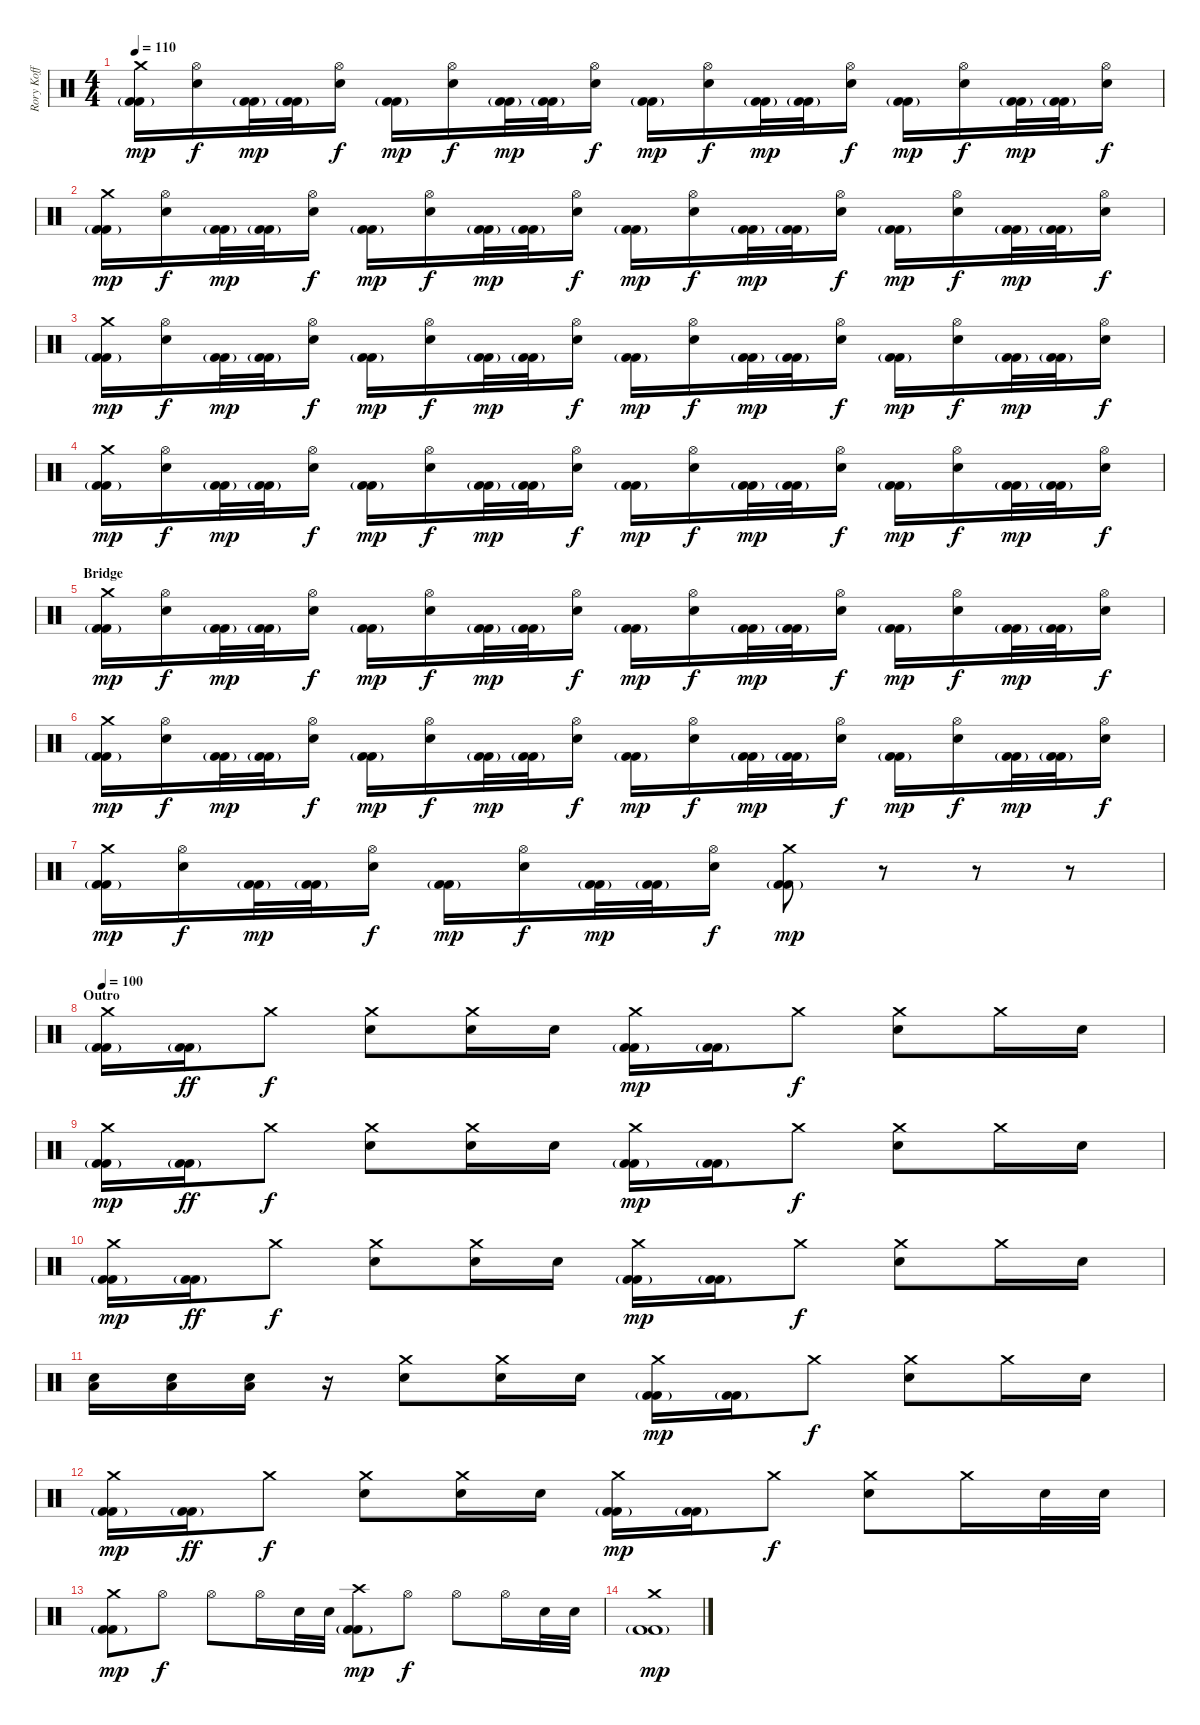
\track ("Rory Koff" "Rory Koff") {instrument percussion}
\staff {score}
\articulation defaults
\ts (4 4)
\tempo 110
\clef neutral
\ks c
("Crash medium (hit)" "Kick (hit) 2"{g} "Kick (hit) 2").16{dy mp} ("Hi-Hat (open)" "Snare (hit) 2").16{dy f} ("Kick (hit) 2"{g} "Kick (hit) 2").32{dy mp} ("Kick (hit) 2"{g} "Kick (hit) 2").32 ("Hi-Hat (open)" "Snare (hit) 2").16{dy f} ("Kick (hit) 2"{g} "Kick (hit) 2").16{dy mp} ("Hi-Hat (open)" "Snare (hit) 2").16{dy f} ("Kick (hit) 2"{g} "Kick (hit) 2").32{dy mp} ("Kick (hit) 2"{g} "Kick (hit) 2").32 ("Hi-Hat (open)" "Snare (hit) 2").16{dy f} ("Kick (hit) 2"{g} "Kick (hit) 2").16{dy mp} ("Hi-Hat (open)" "Snare (hit) 2").16{dy f} ("Kick (hit) 2"{g} "Kick (hit) 2").32{dy mp} ("Kick (hit) 2"{g} "Kick (hit) 2").32 ("Hi-Hat (open)" "Snare (hit) 2").16{dy f} ("Kick (hit) 2"{g} "Kick (hit) 2").16{dy mp} ("Hi-Hat (open)" "Snare (hit) 2").16{dy f} ("Kick (hit) 2"{g} "Kick (hit) 2").32{dy mp} ("Kick (hit) 2"{g} "Kick (hit) 2").32 ("Hi-Hat (open)" "Snare (hit) 2").16{dy f} |
("Crash medium (hit)" "Kick (hit) 2"{g} "Kick (hit) 2").16{dy mp} ("Hi-Hat (open)" "Snare (hit) 2").16{dy f} ("Kick (hit) 2"{g} "Kick (hit) 2").32{dy mp} ("Kick (hit) 2"{g} "Kick (hit) 2").32 ("Hi-Hat (open)" "Snare (hit) 2").16{dy f} ("Kick (hit) 2"{g} "Kick (hit) 2").16{dy mp} ("Hi-Hat (open)" "Snare (hit) 2").16{dy f} ("Kick (hit) 2"{g} "Kick (hit) 2").32{dy mp} ("Kick (hit) 2"{g} "Kick (hit) 2").32 ("Hi-Hat (open)" "Snare (hit) 2").16{dy f} ("Kick (hit) 2"{g} "Kick (hit) 2").16{dy mp} ("Hi-Hat (open)" "Snare (hit) 2").16{dy f} ("Kick (hit) 2"{g} "Kick (hit) 2").32{dy mp} ("Kick (hit) 2"{g} "Kick (hit) 2").32 ("Hi-Hat (open)" "Snare (hit) 2").16{dy f} ("Kick (hit) 2"{g} "Kick (hit) 2").16{dy mp} ("Hi-Hat (open)" "Snare (hit) 2").16{dy f} ("Kick (hit) 2"{g} "Kick (hit) 2").32{dy mp} ("Kick (hit) 2"{g} "Kick (hit) 2").32 ("Hi-Hat (open)" "Snare (hit) 2").16{dy f} |
("Crash medium (hit)" "Kick (hit) 2"{g} "Kick (hit) 2").16{dy mp} ("Hi-Hat (open)" "Snare (hit) 2").16{dy f} ("Kick (hit) 2"{g} "Kick (hit) 2").32{dy mp} ("Kick (hit) 2"{g} "Kick (hit) 2").32 ("Hi-Hat (open)" "Snare (hit) 2").16{dy f} ("Kick (hit) 2"{g} "Kick (hit) 2").16{dy mp} ("Hi-Hat (open)" "Snare (hit) 2").16{dy f} ("Kick (hit) 2"{g} "Kick (hit) 2").32{dy mp} ("Kick (hit) 2"{g} "Kick (hit) 2").32 ("Hi-Hat (open)" "Snare (hit) 2").16{dy f} ("Kick (hit) 2"{g} "Kick (hit) 2").16{dy mp} ("Hi-Hat (open)" "Snare (hit) 2").16{dy f} ("Kick (hit) 2"{g} "Kick (hit) 2").32{dy mp} ("Kick (hit) 2"{g} "Kick (hit) 2").32 ("Hi-Hat (open)" "Snare (hit) 2").16{dy f} ("Kick (hit) 2"{g} "Kick (hit) 2").16{dy mp} ("Hi-Hat (open)" "Snare (hit) 2").16{dy f} ("Kick (hit) 2"{g} "Kick (hit) 2").32{dy mp} ("Kick (hit) 2"{g} "Kick (hit) 2").32 ("Hi-Hat (open)" "Snare (hit) 2").16{dy f} |
("Crash medium (hit)" "Kick (hit) 2"{g} "Kick (hit) 2").16{dy mp} ("Hi-Hat (open)" "Snare (hit) 2").16{dy f} ("Kick (hit) 2"{g} "Kick (hit) 2").32{dy mp} ("Kick (hit) 2"{g} "Kick (hit) 2").32 ("Hi-Hat (open)" "Snare (hit) 2").16{dy f} ("Kick (hit) 2"{g} "Kick (hit) 2").16{dy mp} ("Hi-Hat (open)" "Snare (hit) 2").16{dy f} ("Kick (hit) 2"{g} "Kick (hit) 2").32{dy mp} ("Kick (hit) 2"{g} "Kick (hit) 2").32 ("Hi-Hat (open)" "Snare (hit) 2").16{dy f} ("Kick (hit) 2"{g} "Kick (hit) 2").16{dy mp} ("Hi-Hat (open)" "Snare (hit) 2").16{dy f} ("Kick (hit) 2"{g} "Kick (hit) 2").32{dy mp} ("Kick (hit) 2"{g} "Kick (hit) 2").32 ("Hi-Hat (open)" "Snare (hit) 2").16{dy f} ("Kick (hit) 2"{g} "Kick (hit) 2").16{dy mp} ("Hi-Hat (open)" "Snare (hit) 2").16{dy f} ("Kick (hit) 2"{g} "Kick (hit) 2").32{dy mp} ("Kick (hit) 2"{g} "Kick (hit) 2").32 ("Hi-Hat (open)" "Snare (hit) 2").16{dy f} |
\section ("" "Bridge")
("Crash medium (hit)" "Kick (hit) 2"{g} "Kick (hit) 2").16{dy mp} ("Hi-Hat (open)" "Snare (hit) 2").16{dy f} ("Kick (hit) 2"{g} "Kick (hit) 2").32{dy mp} ("Kick (hit) 2"{g} "Kick (hit) 2").32 ("Hi-Hat (open)" "Snare (hit) 2").16{dy f} ("Kick (hit) 2"{g} "Kick (hit) 2").16{dy mp} ("Hi-Hat (open)" "Snare (hit) 2").16{dy f} ("Kick (hit) 2"{g} "Kick (hit) 2").32{dy mp} ("Kick (hit) 2"{g} "Kick (hit) 2").32 ("Hi-Hat (open)" "Snare (hit) 2").16{dy f} ("Kick (hit) 2"{g} "Kick (hit) 2").16{dy mp} ("Hi-Hat (open)" "Snare (hit) 2").16{dy f} ("Kick (hit) 2"{g} "Kick (hit) 2").32{dy mp} ("Kick (hit) 2"{g} "Kick (hit) 2").32 ("Hi-Hat (open)" "Snare (hit) 2").16{dy f} ("Kick (hit) 2"{g} "Kick (hit) 2").16{dy mp} ("Hi-Hat (open)" "Snare (hit) 2").16{dy f} ("Kick (hit) 2"{g} "Kick (hit) 2").32{dy mp} ("Kick (hit) 2"{g} "Kick (hit) 2").32 ("Hi-Hat (open)" "Snare (hit) 2").16{dy f} |
("Crash medium (hit)" "Kick (hit) 2"{g} "Kick (hit) 2").16{dy mp} ("Hi-Hat (open)" "Snare (hit) 2").16{dy f} ("Kick (hit) 2"{g} "Kick (hit) 2").32{dy mp} ("Kick (hit) 2"{g} "Kick (hit) 2").32 ("Hi-Hat (open)" "Snare (hit) 2").16{dy f} ("Kick (hit) 2"{g} "Kick (hit) 2").16{dy mp} ("Hi-Hat (open)" "Snare (hit) 2").16{dy f} ("Kick (hit) 2"{g} "Kick (hit) 2").32{dy mp} ("Kick (hit) 2"{g} "Kick (hit) 2").32 ("Hi-Hat (open)" "Snare (hit) 2").16{dy f} ("Kick (hit) 2"{g} "Kick (hit) 2").16{dy mp} ("Hi-Hat (open)" "Snare (hit) 2").16{dy f} ("Kick (hit) 2"{g} "Kick (hit) 2").32{dy mp} ("Kick (hit) 2"{g} "Kick (hit) 2").32 ("Hi-Hat (open)" "Snare (hit) 2").16{dy f} ("Kick (hit) 2"{g} "Kick (hit) 2").16{dy mp} ("Hi-Hat (open)" "Snare (hit) 2").16{dy f} ("Kick (hit) 2"{g} "Kick (hit) 2").32{dy mp} ("Kick (hit) 2"{g} "Kick (hit) 2").32 ("Hi-Hat (open)" "Snare (hit) 2").16{dy f} |
("Crash medium (hit)" "Kick (hit) 2"{g} "Kick (hit) 2").16{dy mp} ("Hi-Hat (open)" "Snare (hit) 2").16{dy f} ("Kick (hit) 2"{g} "Kick (hit) 2").32{dy mp} ("Kick (hit) 2"{g} "Kick (hit) 2").32 ("Hi-Hat (open)" "Snare (hit) 2").16{dy f} ("Kick (hit) 2"{g} "Kick (hit) 2").16{dy mp} ("Hi-Hat (open)" "Snare (hit) 2").16{dy f} ("Kick (hit) 2"{g} "Kick (hit) 2").32{dy mp} ("Kick (hit) 2"{g} "Kick (hit) 2").32 ("Hi-Hat (open)" "Snare (hit) 2").16{dy f} ("Crash medium (hit)" "Kick (hit) 2"{g} "Kick (hit) 2").8{dy mp} r.8 r.8 r.8 |
\section ("" "Outro")
\tempo 100
("Crash medium (hit)" "Kick (hit) 2"{g} "Kick (hit) 2").16 ("Kick (hit) 2"{g} "Kick (hit) 2").16{dy ff} "Crash medium (hit)".8{dy f} ("Crash medium (hit)" "Snare (hit) 2").8 ("Crash medium (hit)" "Snare (hit) 2").16 "Snare (hit) 2".16 ("Crash medium (hit)" "Kick (hit) 2"{g} "Kick (hit) 2").16{dy mp} ("Kick (hit) 2"{g} "Kick (hit) 2").16 "Crash medium (hit)".8{dy f} ("Crash medium (hit)" "Snare (hit) 2").8 "Crash medium (hit)".16 "Snare (hit) 2".16 |
("Crash medium (hit)" "Kick (hit) 2"{g} "Kick (hit) 2").16{dy mp} ("Kick (hit) 2"{g} "Kick (hit) 2").16{dy ff} "Crash medium (hit)".8{dy f} ("Crash medium (hit)" "Snare (hit) 2").8 ("Crash medium (hit)" "Snare (hit) 2").16 "Snare (hit) 2".16 ("Crash medium (hit)" "Kick (hit) 2"{g} "Kick (hit) 2").16{dy mp} ("Kick (hit) 2"{g} "Kick (hit) 2").16 "Crash medium (hit)".8{dy f} ("Crash medium (hit)" "Snare (hit) 2").8 "Crash medium (hit)".16 "Snare (hit) 2".16 |
("Crash medium (hit)" "Kick (hit) 2"{g} "Kick (hit) 2").16{dy mp} ("Kick (hit) 2"{g} "Kick (hit) 2").16{dy ff} "Crash medium (hit)".8{dy f} ("Crash medium (hit)" "Snare (hit) 2").8 ("Crash medium (hit)" "Snare (hit) 2").16 "Snare (hit) 2".16 ("Crash medium (hit)" "Kick (hit) 2"{g} "Kick (hit) 2").16{dy mp} ("Kick (hit) 2"{g} "Kick (hit) 2").16 "Crash medium (hit)".8{dy f} ("Crash medium (hit)" "Snare (hit) 2").8 "Crash medium (hit)".16 "Snare (hit) 2".16 |
("Snare (hit) 2" "Low Floor Tom (hit)").16 ("Snare (hit) 2" "Low Floor Tom (hit)").16 ("Snare (hit) 2" "Low Floor Tom (hit)").16 r.16 ("Crash medium (hit)" "Snare (hit) 2").8 ("Crash medium (hit)" "Snare (hit) 2").16 "Snare (hit) 2".16 ("Crash medium (hit)" "Kick (hit) 2"{g} "Kick (hit) 2").16{dy mp} ("Kick (hit) 2"{g} "Kick (hit) 2").16 "Crash medium (hit)".8{dy f} ("Crash medium (hit)" "Snare (hit) 2").8 "Crash medium (hit)".16 "Snare (hit) 2".16 |
("Crash medium (hit)" "Kick (hit) 2"{g} "Kick (hit) 2").16{dy mp} ("Kick (hit) 2"{g} "Kick (hit) 2").16{dy ff} "Crash medium (hit)".8{dy f} ("Crash medium (hit)" "Snare (hit) 2").8 ("Crash medium (hit)" "Snare (hit) 2").16 "Snare (hit) 2".16 ("Crash medium (hit)" "Kick (hit) 2"{g} "Kick (hit) 2").16{dy mp} ("Kick (hit) 2"{g} "Kick (hit) 2").16 "Crash medium (hit)".8{dy f} ("Crash medium (hit)" "Snare (hit) 2").8 "Crash medium (hit)".16 "Snare (hit) 2".32 "Snare (hit) 2".32 |
("Crash medium (hit)" "Kick (hit) 2"{g} "Kick (hit) 2").8{dy mp} "Hi-Hat (open)".8{dy f} "Hi-Hat (open)".8 "Hi-Hat (open)".16 "Snare (hit) 2".32 "Snare (hit) 2".32 ("Crash high (hit)" "Kick (hit) 2"{g} "Kick (hit) 2").8{dy mp} "Hi-Hat (open)".8{dy f} "Hi-Hat (open)".8 "Hi-Hat (open)".16 "Snare (hit) 2".32 "Snare (hit) 2".32 |
("Crash medium (hit)" "Kick (hit) 2"{g} "Kick (hit) 2").1{dy mp}
